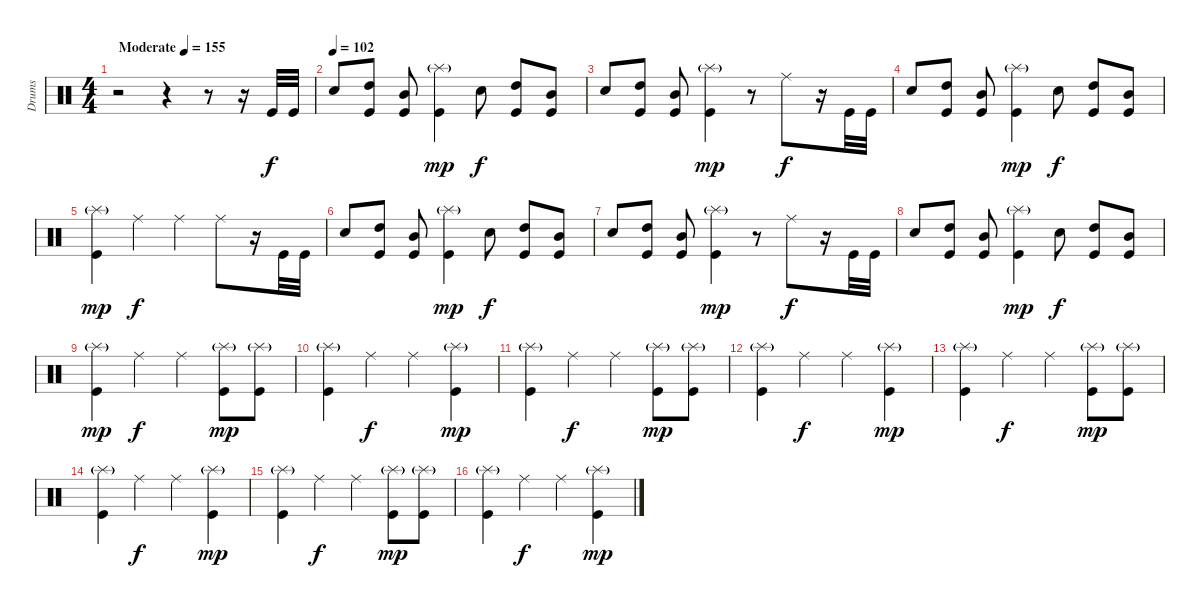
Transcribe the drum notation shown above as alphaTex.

\track ("Drums" "Drums") {instrument percussion}
\staff {score}
\articulation defaults
\ts (4 4)
\tempo (155 "Moderate")
\clef neutral
\ks c
r.2{dy f} r.4 r.8 r.16 "Kick (hit)".32 "Kick (hit)".32 |
\tempo (102)
"Snare (hit) 2".8 ("High Tom (hit)" "Kick (hit)").8 ("Mid Tom (hit)" "Kick (hit)").8 ("Splash (hit)"{g} "Kick (hit)").4{dy mp} "Snare (hit) 2".8{dy f} ("High Tom (hit)" "Kick (hit)").8 ("Mid Tom (hit)" "Kick (hit)").8 |
"Snare (hit) 2".8 ("High Tom (hit)" "Kick (hit)").8 ("Mid Tom (hit)" "Kick (hit)").8 ("Splash (hit)"{g} "Kick (hit)").4{dy mp} r.8 "Ride (middle)".8{dy f} r.16 "Kick (hit)".32 "Kick (hit)".32 |
"Snare (hit) 2".8 ("High Tom (hit)" "Kick (hit)").8 ("Mid Tom (hit)" "Kick (hit)").8 ("Splash (hit)"{g} "Kick (hit)").4{dy mp} "Snare (hit) 2".8{dy f} ("High Tom (hit)" "Kick (hit)").8 ("Mid Tom (hit)" "Kick (hit)").8 |
("Splash (hit)"{g} "Kick (hit)").4{dy mp} "Ride (middle)".4{dy f} "Ride (middle)".4 "Ride (middle)".8 r.16 "Kick (hit)".32 "Kick (hit)".32 |
"Snare (hit) 2".8 ("High Tom (hit)" "Kick (hit)").8 ("Mid Tom (hit)" "Kick (hit)").8 ("Splash (hit)"{g} "Kick (hit)").4{dy mp} "Snare (hit) 2".8{dy f} ("High Tom (hit)" "Kick (hit)").8 ("Mid Tom (hit)" "Kick (hit)").8 |
"Snare (hit) 2".8 ("High Tom (hit)" "Kick (hit)").8 ("Mid Tom (hit)" "Kick (hit)").8 ("Splash (hit)"{g} "Kick (hit)").4{dy mp} r.8 "Ride (middle)".8{dy f} r.16 "Kick (hit)".32 "Kick (hit)".32 |
"Snare (hit) 2".8 ("High Tom (hit)" "Kick (hit)").8 ("Mid Tom (hit)" "Kick (hit)").8 ("Splash (hit)"{g} "Kick (hit)").4{dy mp} "Snare (hit) 2".8{dy f} ("High Tom (hit)" "Kick (hit)").8 ("Mid Tom (hit)" "Kick (hit)").8 |
("Splash (hit)"{g} "Kick (hit)").4{dy mp} "Ride (middle)".4{dy f} "Ride (middle)".4 ("Splash (hit)"{g} "Kick (hit)").8{dy mp} ("Splash (hit)"{g} "Kick (hit)").8 |
("Splash (hit)"{g} "Kick (hit)").4 "Ride (middle)".4{dy f} "Ride (middle)".4 ("Splash (hit)"{g} "Kick (hit)").4{dy mp} |
("Splash (hit)"{g} "Kick (hit)").4 "Ride (middle)".4{dy f} "Ride (middle)".4 ("Splash (hit)"{g} "Kick (hit)").8{dy mp} ("Splash (hit)"{g} "Kick (hit)").8 |
("Splash (hit)"{g} "Kick (hit)").4 "Ride (middle)".4{dy f} "Ride (middle)".4 ("Splash (hit)"{g} "Kick (hit)").4{dy mp} |
("Splash (hit)"{g} "Kick (hit)").4 "Ride (middle)".4{dy f} "Ride (middle)".4 ("Splash (hit)"{g} "Kick (hit)").8{dy mp} ("Splash (hit)"{g} "Kick (hit)").8 |
("Splash (hit)"{g} "Kick (hit)").4 "Ride (middle)".4{dy f} "Ride (middle)".4 ("Splash (hit)"{g} "Kick (hit)").4{dy mp} |
("Splash (hit)"{g} "Kick (hit)").4 "Ride (middle)".4{dy f} "Ride (middle)".4 ("Splash (hit)"{g} "Kick (hit)").8{dy mp} ("Splash (hit)"{g} "Kick (hit)").8 |
("Splash (hit)"{g} "Kick (hit)").4 "Ride (middle)".4{dy f} "Ride (middle)".4 ("Splash (hit)"{g} "Kick (hit)").4{dy mp}
